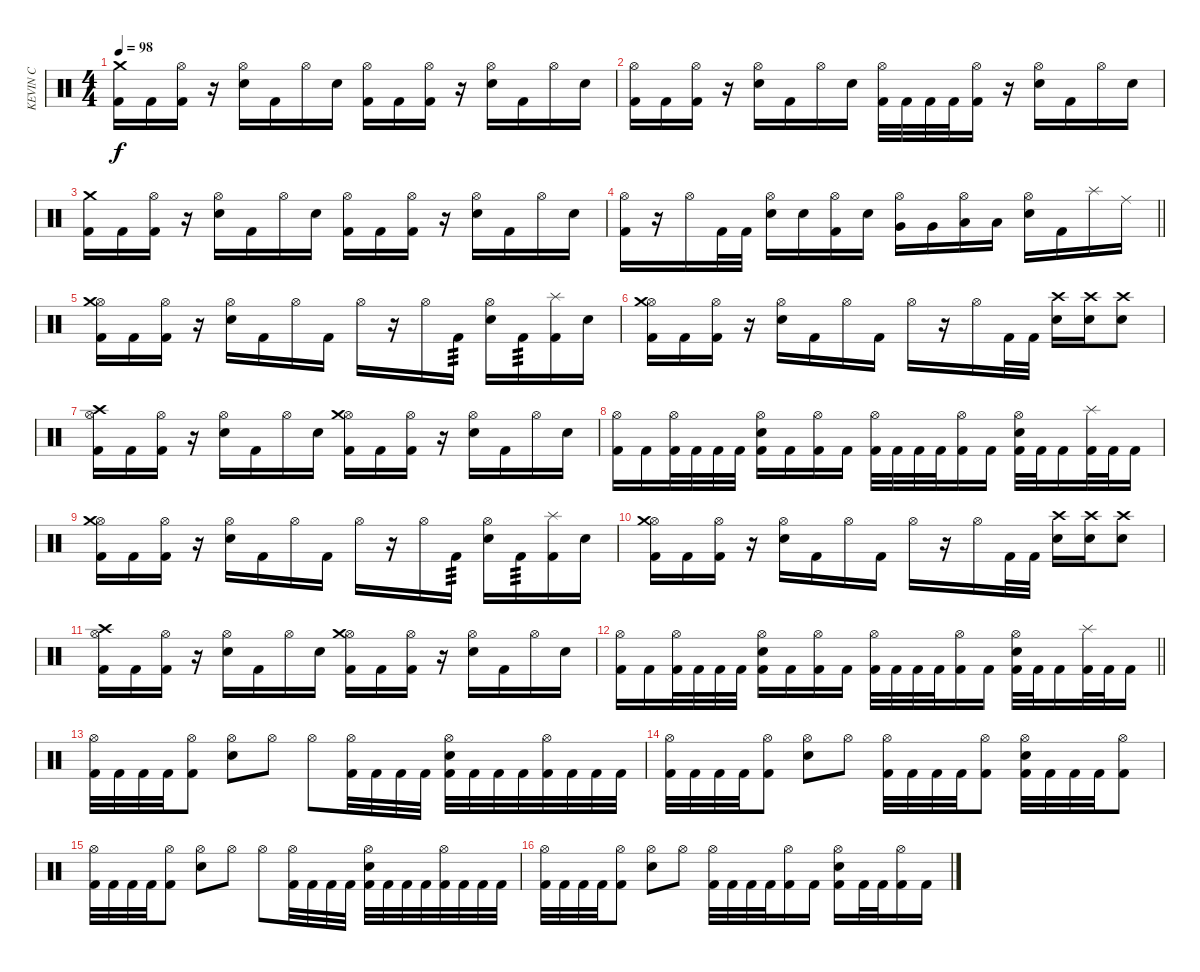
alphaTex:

\track ("KEVIN C" "KEVIN C") {instrument percussion}
\staff {score}
\articulation defaults
\ts (4 4)
\tempo 98
\clef neutral
\ks c
("Crash medium (hit)" "Kick (hit) 2").16{dy f} "Kick (hit) 2".16 ("Hi-Hat (open)" "Kick (hit) 2").16 r.16 ("Hi-Hat (open)" "Snare (hit) 2").16 "Kick (hit) 2".16 "Hi-Hat (open)".16 "Snare (hit) 2".16 ("Hi-Hat (open)" "Kick (hit) 2").16 "Kick (hit) 2".16 ("Hi-Hat (open)" "Kick (hit) 2").16 r.16 ("Hi-Hat (open)" "Snare (hit) 2").16 "Kick (hit) 2".16 "Hi-Hat (open)".16 "Snare (hit) 2".16 |
("Hi-Hat (open)" "Kick (hit) 2").16 "Kick (hit) 2".16 ("Hi-Hat (open)" "Kick (hit) 2").16 r.16 ("Hi-Hat (open)" "Snare (hit) 2").16 "Kick (hit) 2".16 "Hi-Hat (open)".16 "Snare (hit) 2".16 ("Hi-Hat (open)" "Kick (hit) 2").32 "Kick (hit) 2".32 "Kick (hit) 2".32 "Kick (hit) 2".32 ("Hi-Hat (open)" "Kick (hit) 2").16 r.16 ("Hi-Hat (open)" "Snare (hit) 2").16 "Kick (hit) 2".16 "Hi-Hat (open)".16 "Snare (hit) 2".16 |
("Crash medium (hit)" "Kick (hit) 2").16 "Kick (hit) 2".16 ("Hi-Hat (open)" "Kick (hit) 2").16 r.16 ("Hi-Hat (open)" "Snare (hit) 2").16 "Kick (hit) 2".16 "Hi-Hat (open)".16 "Snare (hit) 2".16 ("Hi-Hat (open)" "Kick (hit) 2").16 "Kick (hit) 2".16 ("Hi-Hat (open)" "Kick (hit) 2").16 r.16 ("Hi-Hat (open)" "Snare (hit) 2").16 "Kick (hit) 2".16 "Hi-Hat (open)".16 "Snare (hit) 2".16 |
\barLineRight lightlight
("Hi-Hat (open)" "Kick (hit) 2").16 r.16 "Hi-Hat (open)".16 "Kick (hit) 2".32 "Kick (hit) 2".32 ("Hi-Hat (open)" "Snare (hit) 2").16 "Snare (hit) 2".16 ("Hi-Hat (open)" "Kick (hit) 2").16 "Snare (hit) 2".16 ("Hi-Hat (open)" "Very Low Tom (hit)").16 "Very Low Tom (hit)".16 ("Hi-Hat (open)" "Low Floor Tom (hit)").16 "Low Floor Tom (hit)".16 ("Hi-Hat (open)" "Snare (hit) 2").16 "Kick (hit) 2".16 "Splash (hit)".16 "Ride (middle)".16 |
("Hi-Hat (open)" "Crash medium (hit)" "Kick (hit) 2").16 "Kick (hit) 2".16 ("Hi-Hat (open)" "Kick (hit) 2").16 r.16 ("Hi-Hat (open)" "Snare (hit) 2").16 "Kick (hit) 2".16 "Hi-Hat (open)".16 "Kick (hit) 2".16 "Hi-Hat (open)".16 r.16 "Hi-Hat (open)".16 "Kick (hit) 2".16{tp 3} ("Hi-Hat (open)" "Snare (hit) 2").16 "Kick (hit) 2".16{tp 3} ("Splash (hit)" "Kick (hit) 2").16 "Snare (hit) 2".16 |
("Hi-Hat (open)" "Crash medium (hit)" "Kick (hit) 2").16 "Kick (hit) 2".16 ("Hi-Hat (open)" "Kick (hit) 2").16 r.16 ("Hi-Hat (open)" "Snare (hit) 2").16 "Kick (hit) 2".16 "Hi-Hat (open)".16 "Kick (hit) 2".16 "Hi-Hat (open)".16 r.16 "Hi-Hat (open)".16 "Kick (hit) 2".32 "Kick (hit) 2".32 ("Crash high (hit)" "Snare (hit) 2").16 ("Crash high (hit)" "Snare (hit) 2").16 ("Crash high (hit)" "Snare (hit) 2").8 |
("Hi-Hat (open)" "Crash high (hit)" "Kick (hit) 2").16 "Kick (hit) 2".16 ("Hi-Hat (open)" "Kick (hit) 2").16 r.16 ("Hi-Hat (open)" "Snare (hit) 2").16 "Kick (hit) 2".16 "Hi-Hat (open)".16 "Snare (hit) 2".16 ("Hi-Hat (open)" "Crash medium (hit)" "Kick (hit) 2").16 "Kick (hit) 2".16 ("Hi-Hat (open)" "Kick (hit) 2").16 r.16 ("Hi-Hat (open)" "Snare (hit) 2").16 "Kick (hit) 2".16 "Hi-Hat (open)".16 "Snare (hit) 2".16 |
("Hi-Hat (open)" "Kick (hit) 2").16 "Kick (hit) 2".16 ("Hi-Hat (open)" "Kick (hit) 2").32 "Kick (hit) 2".32 "Kick (hit) 2".32 "Kick (hit) 2".32 ("Hi-Hat (open)" "Snare (hit) 2" "Kick (hit) 2").16 "Kick (hit) 2".16 ("Hi-Hat (open)" "Kick (hit) 2").16 "Kick (hit) 2".16 ("Hi-Hat (open)" "Kick (hit) 2").32 "Kick (hit) 2".32 "Kick (hit) 2".32 "Kick (hit) 2".32 ("Hi-Hat (open)" "Kick (hit) 2").16 "Kick (hit) 2".16 ("Hi-Hat (open)" "Snare (hit) 2" "Kick (hit) 2").32 "Kick (hit) 2".32 "Kick (hit) 2".16 ("Splash (hit)" "Kick (hit) 2").32 "Kick (hit) 2".32 "Kick (hit) 2".16 |
("Hi-Hat (open)" "Crash medium (hit)" "Kick (hit) 2").16 "Kick (hit) 2".16 ("Hi-Hat (open)" "Kick (hit) 2").16 r.16 ("Hi-Hat (open)" "Snare (hit) 2").16 "Kick (hit) 2".16 "Hi-Hat (open)".16 "Kick (hit) 2".16 "Hi-Hat (open)".16 r.16 "Hi-Hat (open)".16 "Kick (hit) 2".16{tp 3} ("Hi-Hat (open)" "Snare (hit) 2").16 "Kick (hit) 2".16{tp 3} ("Splash (hit)" "Kick (hit) 2").16 "Snare (hit) 2".16 |
("Hi-Hat (open)" "Crash medium (hit)" "Kick (hit) 2").16 "Kick (hit) 2".16 ("Hi-Hat (open)" "Kick (hit) 2").16 r.16 ("Hi-Hat (open)" "Snare (hit) 2").16 "Kick (hit) 2".16 "Hi-Hat (open)".16 "Kick (hit) 2".16 "Hi-Hat (open)".16 r.16 "Hi-Hat (open)".16 "Kick (hit) 2".32 "Kick (hit) 2".32 ("Crash high (hit)" "Snare (hit) 2").16 ("Crash high (hit)" "Snare (hit) 2").16 ("Crash high (hit)" "Snare (hit) 2").8 |
("Hi-Hat (open)" "Crash high (hit)" "Kick (hit) 2").16 "Kick (hit) 2".16 ("Hi-Hat (open)" "Kick (hit) 2").16 r.16 ("Hi-Hat (open)" "Snare (hit) 2").16 "Kick (hit) 2".16 "Hi-Hat (open)".16 "Snare (hit) 2".16 ("Hi-Hat (open)" "Crash medium (hit)" "Kick (hit) 2").16 "Kick (hit) 2".16 ("Hi-Hat (open)" "Kick (hit) 2").16 r.16 ("Hi-Hat (open)" "Snare (hit) 2").16 "Kick (hit) 2".16 "Hi-Hat (open)".16 "Snare (hit) 2".16 |
\barLineRight lightlight
("Hi-Hat (open)" "Kick (hit) 2").16 "Kick (hit) 2".16 ("Hi-Hat (open)" "Kick (hit) 2").32 "Kick (hit) 2".32 "Kick (hit) 2".32 "Kick (hit) 2".32 ("Hi-Hat (open)" "Snare (hit) 2" "Kick (hit) 2").16 "Kick (hit) 2".16 ("Hi-Hat (open)" "Kick (hit) 2").16 "Kick (hit) 2".16 ("Hi-Hat (open)" "Kick (hit) 2").32 "Kick (hit) 2".32 "Kick (hit) 2".32 "Kick (hit) 2".32 ("Hi-Hat (open)" "Kick (hit) 2").16 "Kick (hit) 2".16 ("Hi-Hat (open)" "Snare (hit) 2" "Kick (hit) 2").32 "Kick (hit) 2".32 "Kick (hit) 2".16 ("Splash (hit)" "Kick (hit) 2").32 "Kick (hit) 2".32 "Kick (hit) 2".16 |
("Hi-Hat (open)" "Kick (hit) 2").32 "Kick (hit) 2".32 "Kick (hit) 2".32 "Kick (hit) 2".32 ("Hi-Hat (open)" "Kick (hit) 2").8 ("Hi-Hat (open)" "Snare (hit) 2").8 "Hi-Hat (open)".8 "Hi-Hat (open)".8 ("Hi-Hat (open)" "Kick (hit) 2").32 "Kick (hit) 2".32 "Kick (hit) 2".32 "Kick (hit) 2".32 ("Hi-Hat (open)" "Snare (hit) 2" "Kick (hit) 2").32 "Kick (hit) 2".32 "Kick (hit) 2".32 "Kick (hit) 2".32 ("Hi-Hat (open)" "Kick (hit) 2").32 "Kick (hit) 2".32 "Kick (hit) 2".32 "Kick (hit) 2".32 |
("Hi-Hat (open)" "Kick (hit) 2").32 "Kick (hit) 2".32 "Kick (hit) 2".32 "Kick (hit) 2".32 ("Hi-Hat (open)" "Kick (hit) 2").8 ("Hi-Hat (open)" "Snare (hit) 2").8 "Hi-Hat (open)".8 ("Hi-Hat (open)" "Kick (hit) 2").32 "Kick (hit) 2".32 "Kick (hit) 2".32 "Kick (hit) 2".32 ("Hi-Hat (open)" "Kick (hit) 2").8 ("Hi-Hat (open)" "Snare (hit) 2" "Kick (hit) 2").32 "Kick (hit) 2".32 "Kick (hit) 2".32 "Kick (hit) 2".32 ("Hi-Hat (open)" "Kick (hit) 2").8 |
("Hi-Hat (open)" "Kick (hit) 2").32 "Kick (hit) 2".32 "Kick (hit) 2".32 "Kick (hit) 2".32 ("Hi-Hat (open)" "Kick (hit) 2").8 ("Hi-Hat (open)" "Snare (hit) 2").8 "Hi-Hat (open)".8 "Hi-Hat (open)".8 ("Hi-Hat (open)" "Kick (hit) 2").32 "Kick (hit) 2".32 "Kick (hit) 2".32 "Kick (hit) 2".32 ("Hi-Hat (open)" "Snare (hit) 2" "Kick (hit) 2").32 "Kick (hit) 2".32 "Kick (hit) 2".32 "Kick (hit) 2".32 ("Hi-Hat (open)" "Kick (hit) 2").32 "Kick (hit) 2".32 "Kick (hit) 2".32 "Kick (hit) 2".32 |
("Hi-Hat (open)" "Kick (hit) 2").32 "Kick (hit) 2".32 "Kick (hit) 2".32 "Kick (hit) 2".32 ("Hi-Hat (open)" "Kick (hit) 2").8 ("Hi-Hat (open)" "Snare (hit) 2").8 "Hi-Hat (open)".8 ("Hi-Hat (open)" "Kick (hit) 2").32 "Kick (hit) 2".32 "Kick (hit) 2".32 "Kick (hit) 2".32 ("Hi-Hat (open)" "Kick (hit) 2").16 "Kick (hit) 2".16 ("Hi-Hat (open)" "Snare (hit) 2" "Kick (hit) 2").16 "Kick (hit) 2".32 "Kick (hit) 2".32 ("Hi-Hat (open)" "Kick (hit) 2").16 "Kick (hit) 2".16
